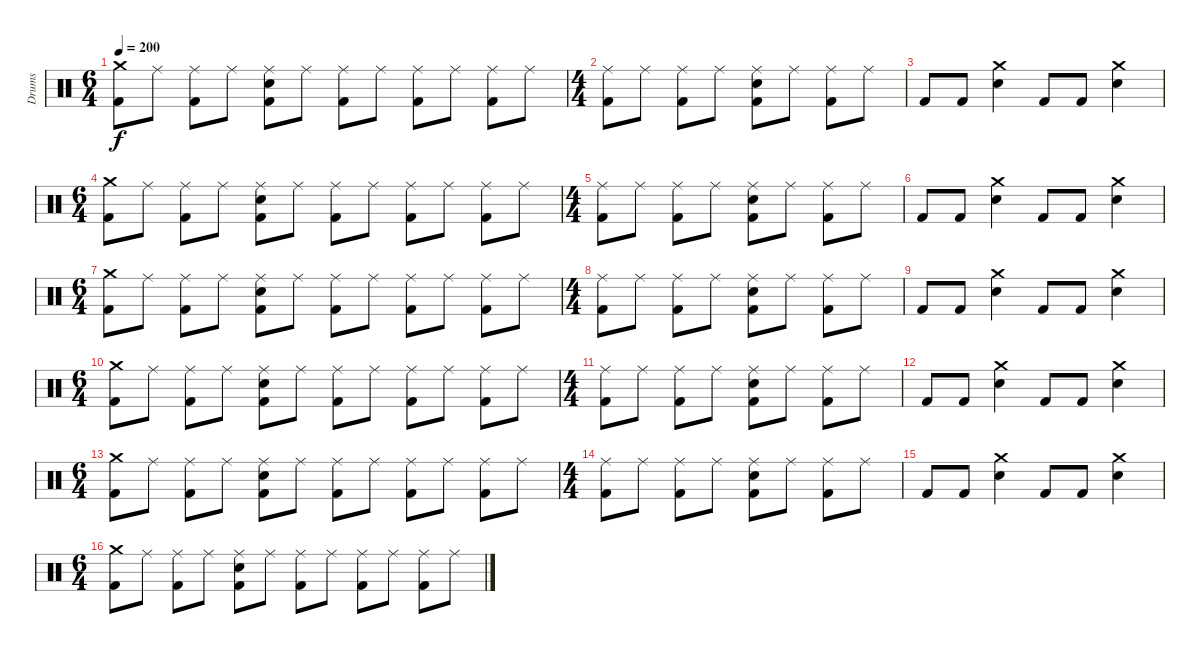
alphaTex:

\track ("Drums" "Drums") {instrument percussion}
\staff {score}
\articulation defaults
\ts (6 4)
\tempo 200
\clef neutral
\ks c
("Crash medium (hit)" "Kick (hit) 2").8{dy f} "Ride (middle)".8 ("Ride (middle)" "Kick (hit) 2").8 "Ride (middle)".8 ("Ride (middle)" "Electric Snare (hit)" "Kick (hit) 2").8 "Ride (middle)".8 ("Ride (middle)" "Kick (hit) 2").8 "Ride (middle)".8 ("Ride (middle)" "Kick (hit) 2").8 "Ride (middle)".8 ("Ride (middle)" "Kick (hit) 2").8 "Ride (middle)".8 |
\ts (4 4)
("Ride (middle)" "Kick (hit) 2").8 "Ride (middle)".8 ("Ride (middle)" "Kick (hit) 2").8 "Ride (middle)".8 ("Ride (middle)" "Electric Snare (hit)" "Kick (hit) 2").8 "Ride (middle)".8 ("Ride (middle)" "Kick (hit) 2").8 "Ride (middle)".8 |
"Kick (hit) 2".8 "Kick (hit) 2".8 ("Crash medium (hit)" "Electric Snare (hit)").4 "Kick (hit) 2".8 "Kick (hit) 2".8 ("Crash medium (hit)" "Electric Snare (hit)").4 |
\ts (6 4)
("Crash medium (hit)" "Kick (hit) 2").8 "Ride (middle)".8 ("Ride (middle)" "Kick (hit) 2").8 "Ride (middle)".8 ("Ride (middle)" "Electric Snare (hit)" "Kick (hit) 2").8 "Ride (middle)".8 ("Ride (middle)" "Kick (hit) 2").8 "Ride (middle)".8 ("Ride (middle)" "Kick (hit) 2").8 "Ride (middle)".8 ("Ride (middle)" "Kick (hit) 2").8 "Ride (middle)".8 |
\ts (4 4)
("Ride (middle)" "Kick (hit) 2").8 "Ride (middle)".8 ("Ride (middle)" "Kick (hit) 2").8 "Ride (middle)".8 ("Ride (middle)" "Electric Snare (hit)" "Kick (hit) 2").8 "Ride (middle)".8 ("Ride (middle)" "Kick (hit) 2").8 "Ride (middle)".8 |
"Kick (hit) 2".8 "Kick (hit) 2".8 ("Crash medium (hit)" "Electric Snare (hit)").4 "Kick (hit) 2".8 "Kick (hit) 2".8 ("Crash medium (hit)" "Electric Snare (hit)").4 |
\ts (6 4)
("Crash medium (hit)" "Kick (hit) 2").8 "Ride (middle)".8 ("Ride (middle)" "Kick (hit) 2").8 "Ride (middle)".8 ("Ride (middle)" "Electric Snare (hit)" "Kick (hit) 2").8 "Ride (middle)".8 ("Ride (middle)" "Kick (hit) 2").8 "Ride (middle)".8 ("Ride (middle)" "Kick (hit) 2").8 "Ride (middle)".8 ("Ride (middle)" "Kick (hit) 2").8 "Ride (middle)".8 |
\ts (4 4)
("Ride (middle)" "Kick (hit) 2").8 "Ride (middle)".8 ("Ride (middle)" "Kick (hit) 2").8 "Ride (middle)".8 ("Ride (middle)" "Electric Snare (hit)" "Kick (hit) 2").8 "Ride (middle)".8 ("Ride (middle)" "Kick (hit) 2").8 "Ride (middle)".8 |
"Kick (hit) 2".8 "Kick (hit) 2".8 ("Crash medium (hit)" "Electric Snare (hit)").4 "Kick (hit) 2".8 "Kick (hit) 2".8 ("Crash medium (hit)" "Electric Snare (hit)").4 |
\ts (6 4)
("Crash medium (hit)" "Kick (hit) 2").8 "Ride (middle)".8 ("Ride (middle)" "Kick (hit) 2").8 "Ride (middle)".8 ("Ride (middle)" "Electric Snare (hit)" "Kick (hit) 2").8 "Ride (middle)".8 ("Ride (middle)" "Kick (hit) 2").8 "Ride (middle)".8 ("Ride (middle)" "Kick (hit) 2").8 "Ride (middle)".8 ("Ride (middle)" "Kick (hit) 2").8 "Ride (middle)".8 |
\ts (4 4)
("Ride (middle)" "Kick (hit) 2").8 "Ride (middle)".8 ("Ride (middle)" "Kick (hit) 2").8 "Ride (middle)".8 ("Ride (middle)" "Electric Snare (hit)" "Kick (hit) 2").8 "Ride (middle)".8 ("Ride (middle)" "Kick (hit) 2").8 "Ride (middle)".8 |
"Kick (hit) 2".8 "Kick (hit) 2".8 ("Crash medium (hit)" "Electric Snare (hit)").4 "Kick (hit) 2".8 "Kick (hit) 2".8 ("Crash medium (hit)" "Electric Snare (hit)").4 |
\ts (6 4)
("Crash medium (hit)" "Kick (hit) 2").8 "Ride (middle)".8 ("Ride (middle)" "Kick (hit) 2").8 "Ride (middle)".8 ("Ride (middle)" "Electric Snare (hit)" "Kick (hit) 2").8 "Ride (middle)".8 ("Ride (middle)" "Kick (hit) 2").8 "Ride (middle)".8 ("Ride (middle)" "Kick (hit) 2").8 "Ride (middle)".8 ("Ride (middle)" "Kick (hit) 2").8 "Ride (middle)".8 |
\ts (4 4)
("Ride (middle)" "Kick (hit) 2").8 "Ride (middle)".8 ("Ride (middle)" "Kick (hit) 2").8 "Ride (middle)".8 ("Ride (middle)" "Electric Snare (hit)" "Kick (hit) 2").8 "Ride (middle)".8 ("Ride (middle)" "Kick (hit) 2").8 "Ride (middle)".8 |
"Kick (hit) 2".8 "Kick (hit) 2".8 ("Crash medium (hit)" "Electric Snare (hit)").4 "Kick (hit) 2".8 "Kick (hit) 2".8 ("Crash medium (hit)" "Electric Snare (hit)").4 |
\ts (6 4)
("Crash medium (hit)" "Kick (hit) 2").8 "Ride (middle)".8 ("Ride (middle)" "Kick (hit) 2").8 "Ride (middle)".8 ("Ride (middle)" "Electric Snare (hit)" "Kick (hit) 2").8 "Ride (middle)".8 ("Ride (middle)" "Kick (hit) 2").8 "Ride (middle)".8 ("Ride (middle)" "Kick (hit) 2").8 "Ride (middle)".8 ("Ride (middle)" "Kick (hit) 2").8 "Ride (middle)".8
